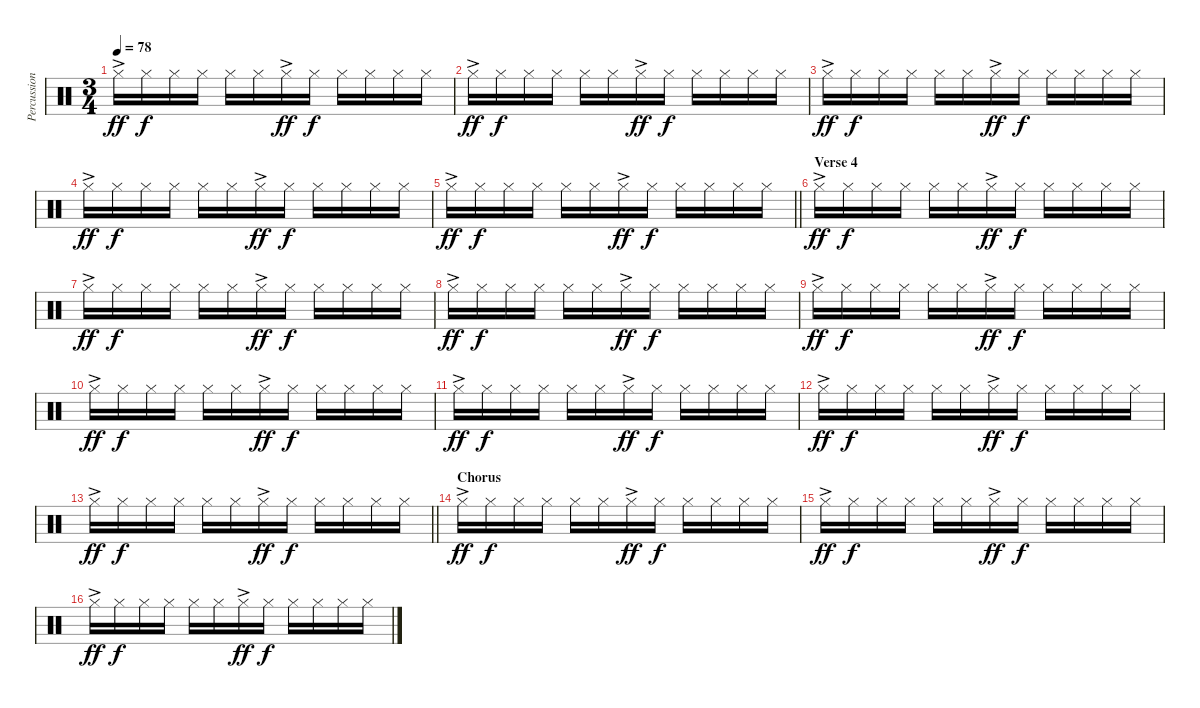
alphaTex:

\track ("Percussion" "Percussion") {instrument percussion}
\staff {score}
\articulation defaults
\ts (3 4)
\tempo 78
\clef neutral
\ks c "Hi-Hat (closed)"{ac}.16{dy ff} "Hi-Hat (closed)".16{dy f} "Hi-Hat (closed)".16 "Hi-Hat (closed)".16 "Hi-Hat (closed)".16 "Hi-Hat (closed)".16 "Hi-Hat (closed)"{ac}.16{dy ff} "Hi-Hat (closed)".16{dy f} "Hi-Hat (closed)".16 "Hi-Hat (closed)".16 "Hi-Hat (closed)".16 "Hi-Hat (closed)".16
|
"Hi-Hat (closed)"{ac}.16{dy ff} "Hi-Hat (closed)".16{dy f} "Hi-Hat (closed)".16 "Hi-Hat (closed)".16 "Hi-Hat (closed)".16 "Hi-Hat (closed)".16 "Hi-Hat (closed)"{ac}.16{dy ff} "Hi-Hat (closed)".16{dy f} "Hi-Hat (closed)".16 "Hi-Hat (closed)".16 "Hi-Hat (closed)".16 "Hi-Hat (closed)".16 |
"Hi-Hat (closed)"{ac}.16{dy ff} "Hi-Hat (closed)".16{dy f} "Hi-Hat (closed)".16 "Hi-Hat (closed)".16 "Hi-Hat (closed)".16 "Hi-Hat (closed)".16 "Hi-Hat (closed)"{ac}.16{dy ff} "Hi-Hat (closed)".16{dy f} "Hi-Hat (closed)".16 "Hi-Hat (closed)".16 "Hi-Hat (closed)".16 "Hi-Hat (closed)".16 |
"Hi-Hat (closed)"{ac}.16{dy ff} "Hi-Hat (closed)".16{dy f} "Hi-Hat (closed)".16 "Hi-Hat (closed)".16 "Hi-Hat (closed)".16 "Hi-Hat (closed)".16 "Hi-Hat (closed)"{ac}.16{dy ff} "Hi-Hat (closed)".16{dy f} "Hi-Hat (closed)".16 "Hi-Hat (closed)".16 "Hi-Hat (closed)".16 "Hi-Hat (closed)".16 |
\barLineRight lightlight "Hi-Hat (closed)"{ac}.16{dy ff} "Hi-Hat (closed)".16{dy f} "Hi-Hat (closed)".16 "Hi-Hat (closed)".16 "Hi-Hat (closed)".16 "Hi-Hat (closed)".16 "Hi-Hat (closed)"{ac}.16{dy ff} "Hi-Hat (closed)".16{dy f} "Hi-Hat (closed)".16 "Hi-Hat (closed)".16 "Hi-Hat (closed)".16 "Hi-Hat (closed)".16
|
\section ("" "Verse 4")
"Hi-Hat (closed)"{ac}.16{dy ff} "Hi-Hat (closed)".16{dy f} "Hi-Hat (closed)".16 "Hi-Hat (closed)".16 "Hi-Hat (closed)".16 "Hi-Hat (closed)".16 "Hi-Hat (closed)"{ac}.16{dy ff} "Hi-Hat (closed)".16{dy f} "Hi-Hat (closed)".16 "Hi-Hat (closed)".16 "Hi-Hat (closed)".16 "Hi-Hat (closed)".16 |
"Hi-Hat (closed)"{ac}.16{dy ff} "Hi-Hat (closed)".16{dy f} "Hi-Hat (closed)".16 "Hi-Hat (closed)".16 "Hi-Hat (closed)".16 "Hi-Hat (closed)".16 "Hi-Hat (closed)"{ac}.16{dy ff} "Hi-Hat (closed)".16{dy f} "Hi-Hat (closed)".16 "Hi-Hat (closed)".16 "Hi-Hat (closed)".16 "Hi-Hat (closed)".16 |
"Hi-Hat (closed)"{ac}.16{dy ff} "Hi-Hat (closed)".16{dy f} "Hi-Hat (closed)".16 "Hi-Hat (closed)".16 "Hi-Hat (closed)".16 "Hi-Hat (closed)".16 "Hi-Hat (closed)"{ac}.16{dy ff} "Hi-Hat (closed)".16{dy f} "Hi-Hat (closed)".16 "Hi-Hat (closed)".16 "Hi-Hat (closed)".16 "Hi-Hat (closed)".16 |
"Hi-Hat (closed)"{ac}.16{dy ff} "Hi-Hat (closed)".16{dy f} "Hi-Hat (closed)".16 "Hi-Hat (closed)".16 "Hi-Hat (closed)".16 "Hi-Hat (closed)".16 "Hi-Hat (closed)"{ac}.16{dy ff} "Hi-Hat (closed)".16{dy f} "Hi-Hat (closed)".16 "Hi-Hat (closed)".16 "Hi-Hat (closed)".16 "Hi-Hat (closed)".16 |
"Hi-Hat (closed)"{ac}.16{dy ff} "Hi-Hat (closed)".16{dy f} "Hi-Hat (closed)".16 "Hi-Hat (closed)".16 "Hi-Hat (closed)".16 "Hi-Hat (closed)".16 "Hi-Hat (closed)"{ac}.16{dy ff} "Hi-Hat (closed)".16{dy f} "Hi-Hat (closed)".16 "Hi-Hat (closed)".16 "Hi-Hat (closed)".16 "Hi-Hat (closed)".16 |
"Hi-Hat (closed)"{ac}.16{dy ff} "Hi-Hat (closed)".16{dy f} "Hi-Hat (closed)".16 "Hi-Hat (closed)".16 "Hi-Hat (closed)".16 "Hi-Hat (closed)".16 "Hi-Hat (closed)"{ac}.16{dy ff} "Hi-Hat (closed)".16{dy f} "Hi-Hat (closed)".16 "Hi-Hat (closed)".16 "Hi-Hat (closed)".16 "Hi-Hat (closed)".16 |
"Hi-Hat (closed)"{ac}.16{dy ff} "Hi-Hat (closed)".16{dy f} "Hi-Hat (closed)".16 "Hi-Hat (closed)".16 "Hi-Hat (closed)".16 "Hi-Hat (closed)".16 "Hi-Hat (closed)"{ac}.16{dy ff} "Hi-Hat (closed)".16{dy f} "Hi-Hat (closed)".16 "Hi-Hat (closed)".16 "Hi-Hat (closed)".16 "Hi-Hat (closed)".16 |
\barLineRight lightlight "Hi-Hat (closed)"{ac}.16{dy ff} "Hi-Hat (closed)".16{dy f} "Hi-Hat (closed)".16 "Hi-Hat (closed)".16 "Hi-Hat (closed)".16 "Hi-Hat (closed)".16 "Hi-Hat (closed)"{ac}.16{dy ff} "Hi-Hat (closed)".16{dy f} "Hi-Hat (closed)".16 "Hi-Hat (closed)".16 "Hi-Hat (closed)".16 "Hi-Hat (closed)".16
|
\section ("" "Chorus")
"Hi-Hat (closed)"{ac}.16{dy ff} "Hi-Hat (closed)".16{dy f} "Hi-Hat (closed)".16 "Hi-Hat (closed)".16 "Hi-Hat (closed)".16 "Hi-Hat (closed)".16 "Hi-Hat (closed)"{ac}.16{dy ff} "Hi-Hat (closed)".16{dy f} "Hi-Hat (closed)".16 "Hi-Hat (closed)".16 "Hi-Hat (closed)".16 "Hi-Hat (closed)".16 |
"Hi-Hat (closed)"{ac}.16{dy ff} "Hi-Hat (closed)".16{dy f} "Hi-Hat (closed)".16 "Hi-Hat (closed)".16 "Hi-Hat (closed)".16 "Hi-Hat (closed)".16 "Hi-Hat (closed)"{ac}.16{dy ff} "Hi-Hat (closed)".16{dy f} "Hi-Hat (closed)".16 "Hi-Hat (closed)".16 "Hi-Hat (closed)".16 "Hi-Hat (closed)".16 |
"Hi-Hat (closed)"{ac}.16{dy ff} "Hi-Hat (closed)".16{dy f} "Hi-Hat (closed)".16 "Hi-Hat (closed)".16 "Hi-Hat (closed)".16 "Hi-Hat (closed)".16 "Hi-Hat (closed)"{ac}.16{dy ff} "Hi-Hat (closed)".16{dy f} "Hi-Hat (closed)".16 "Hi-Hat (closed)".16 "Hi-Hat (closed)".16 "Hi-Hat (closed)".16
